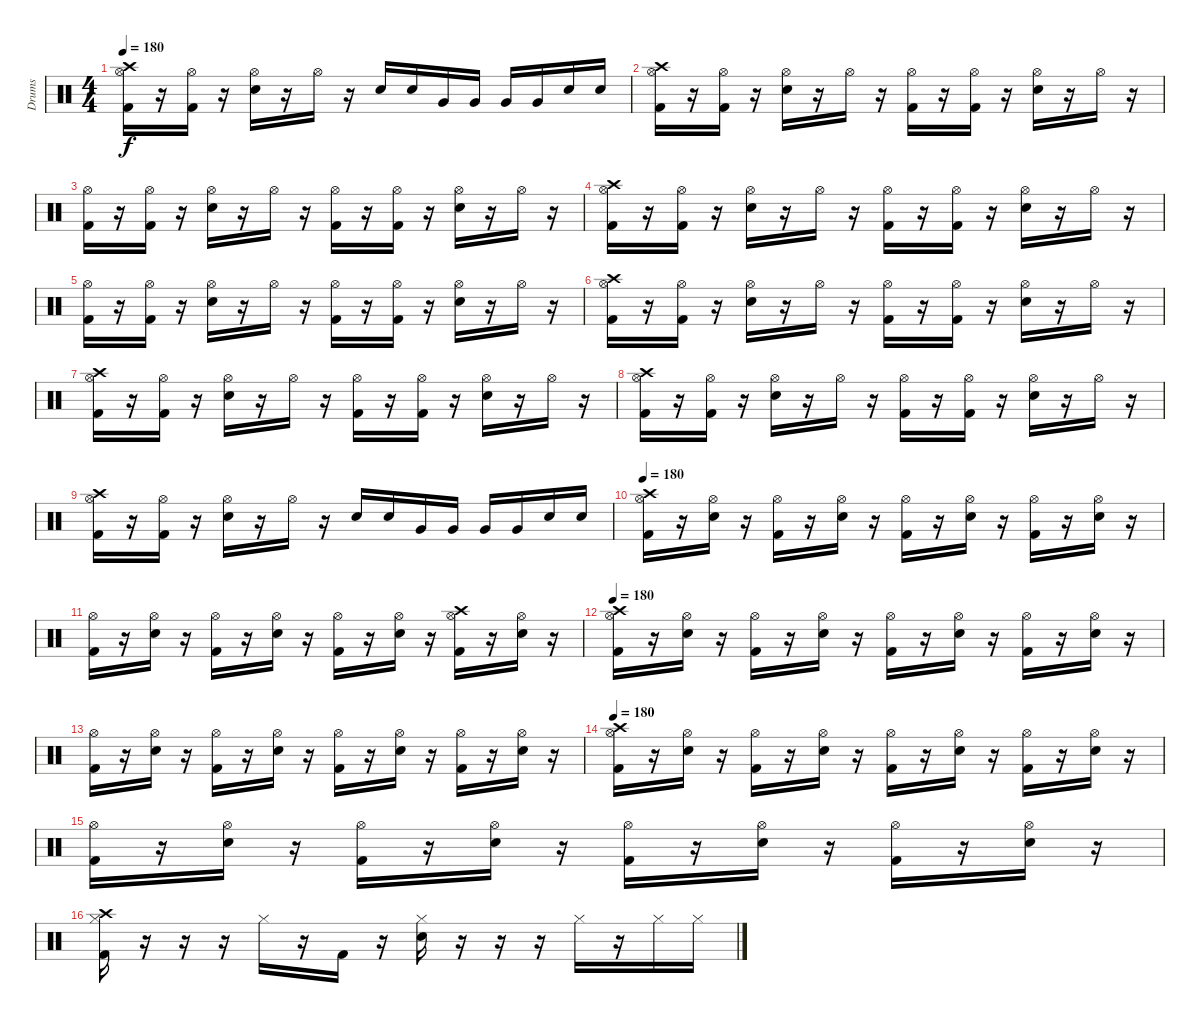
\track ("Drums" "Drums") {instrument percussion}
\staff {score}
\articulation defaults
\ts (4 4)
\tempo 180
\clef neutral
\ks c
("Hi-Hat (open)" "Kick (hit) 2" "Crash high (hit)").16{dy f} r.16 ("Hi-Hat (open)" "Kick (hit) 2").16 r.16 ("Hi-Hat (open)" "Snare (hit) 2").16 r.16 "Hi-Hat (open)".16 r.16 "Snare (hit) 2".16 "Snare (hit) 2".16 "Very Low Tom (hit)".16 "Very Low Tom (hit)".16 "Very Low Tom (hit)".16 "Very Low Tom (hit)".16 "Snare (hit) 2".16 "Snare (hit) 2".16 |
("Hi-Hat (open)" "Kick (hit) 2" "Crash high (hit)").16 r.16 ("Hi-Hat (open)" "Kick (hit) 2").16 r.16 ("Hi-Hat (open)" "Snare (hit) 2").16 r.16 "Hi-Hat (open)".16 r.16 ("Hi-Hat (open)" "Kick (hit) 2").16 r.16 ("Hi-Hat (open)" "Kick (hit) 2").16 r.16 ("Hi-Hat (open)" "Snare (hit) 2").16 r.16 "Hi-Hat (open)".16 r.16 |
("Hi-Hat (open)" "Kick (hit) 2").16 r.16 ("Hi-Hat (open)" "Kick (hit) 2").16 r.16 ("Hi-Hat (open)" "Snare (hit) 2").16 r.16 "Hi-Hat (open)".16 r.16 ("Hi-Hat (open)" "Kick (hit) 2").16 r.16 ("Hi-Hat (open)" "Kick (hit) 2").16 r.16 ("Hi-Hat (open)" "Snare (hit) 2").16 r.16 "Hi-Hat (open)".16 r.16 |
("Hi-Hat (open)" "Kick (hit) 2" "Crash high (hit)").16 r.16 ("Hi-Hat (open)" "Kick (hit) 2").16 r.16 ("Hi-Hat (open)" "Snare (hit) 2").16 r.16 "Hi-Hat (open)".16 r.16 ("Hi-Hat (open)" "Kick (hit) 2").16 r.16 ("Hi-Hat (open)" "Kick (hit) 2").16 r.16 ("Hi-Hat (open)" "Snare (hit) 2").16 r.16 "Hi-Hat (open)".16 r.16 |
("Hi-Hat (open)" "Kick (hit) 2").16 r.16 ("Hi-Hat (open)" "Kick (hit) 2").16 r.16 ("Hi-Hat (open)" "Snare (hit) 2").16 r.16 "Hi-Hat (open)".16 r.16 ("Hi-Hat (open)" "Kick (hit) 2").16 r.16 ("Hi-Hat (open)" "Kick (hit) 2").16 r.16 ("Hi-Hat (open)" "Snare (hit) 2").16 r.16 "Hi-Hat (open)".16 r.16 |
("Hi-Hat (open)" "Kick (hit) 2" "Crash high (hit)").16 r.16 ("Hi-Hat (open)" "Kick (hit) 2").16 r.16 ("Hi-Hat (open)" "Snare (hit) 2").16 r.16 "Hi-Hat (open)".16 r.16 ("Hi-Hat (open)" "Kick (hit) 2").16 r.16 ("Hi-Hat (open)" "Kick (hit) 2").16 r.16 ("Hi-Hat (open)" "Snare (hit) 2").16 r.16 "Hi-Hat (open)".16 r.16 |
("Hi-Hat (open)" "Kick (hit) 2" "Crash high (hit)").16 r.16 ("Hi-Hat (open)" "Kick (hit) 2").16 r.16 ("Hi-Hat (open)" "Snare (hit) 2").16 r.16 "Hi-Hat (open)".16 r.16 ("Hi-Hat (open)" "Kick (hit) 2").16 r.16 ("Hi-Hat (open)" "Kick (hit) 2").16 r.16 ("Hi-Hat (open)" "Snare (hit) 2").16 r.16 "Hi-Hat (open)".16 r.16 |
("Hi-Hat (open)" "Kick (hit) 2" "Crash high (hit)").16 r.16 ("Hi-Hat (open)" "Kick (hit) 2").16 r.16 ("Hi-Hat (open)" "Snare (hit) 2").16 r.16 "Hi-Hat (open)".16 r.16 ("Hi-Hat (open)" "Kick (hit) 2").16 r.16 ("Hi-Hat (open)" "Kick (hit) 2").16 r.16 ("Hi-Hat (open)" "Snare (hit) 2").16 r.16 "Hi-Hat (open)".16 r.16 |
("Hi-Hat (open)" "Kick (hit) 2" "Crash high (hit)").16 r.16 ("Hi-Hat (open)" "Kick (hit) 2").16 r.16 ("Hi-Hat (open)" "Snare (hit) 2").16 r.16 "Hi-Hat (open)".16 r.16 "Snare (hit) 2".16 "Snare (hit) 2".16 "Very Low Tom (hit)".16 "Very Low Tom (hit)".16 "Very Low Tom (hit)".16 "Very Low Tom (hit)".16 "Snare (hit) 2".16 "Snare (hit) 2".16 |
\tempo 180
("Hi-Hat (open)" "Kick (hit) 2" "Crash high (hit)").16 r.16 ("Hi-Hat (open)" "Snare (hit) 2").16 r.16 ("Hi-Hat (open)" "Kick (hit) 2").16 r.16 ("Hi-Hat (open)" "Snare (hit) 2").16 r.16 ("Hi-Hat (open)" "Kick (hit) 2").16 r.16 ("Hi-Hat (open)" "Snare (hit) 2").16 r.16 ("Hi-Hat (open)" "Kick (hit) 2").16 r.16 ("Hi-Hat (open)" "Snare (hit) 2").16 r.16 |
("Hi-Hat (open)" "Kick (hit) 2").16 r.16 ("Hi-Hat (open)" "Snare (hit) 2").16 r.16 ("Hi-Hat (open)" "Kick (hit) 2").16 r.16 ("Hi-Hat (open)" "Snare (hit) 2").16 r.16 ("Hi-Hat (open)" "Kick (hit) 2").16 r.16 ("Hi-Hat (open)" "Snare (hit) 2").16 r.16 ("Hi-Hat (open)" "Kick (hit) 2" "Crash high (hit)").16 r.16 ("Hi-Hat (open)" "Snare (hit) 2").16 r.16 |
\tempo 180
("Hi-Hat (open)" "Kick (hit) 2" "Crash high (hit)").16 r.16 ("Hi-Hat (open)" "Snare (hit) 2").16 r.16 ("Hi-Hat (open)" "Kick (hit) 2").16 r.16 ("Hi-Hat (open)" "Snare (hit) 2").16 r.16 ("Hi-Hat (open)" "Kick (hit) 2").16 r.16 ("Hi-Hat (open)" "Snare (hit) 2").16 r.16 ("Hi-Hat (open)" "Kick (hit) 2").16 r.16 ("Hi-Hat (open)" "Snare (hit) 2").16 r.16 |
("Hi-Hat (open)" "Kick (hit) 2").16 r.16 ("Hi-Hat (open)" "Snare (hit) 2").16 r.16 ("Hi-Hat (open)" "Kick (hit) 2").16 r.16 ("Hi-Hat (open)" "Snare (hit) 2").16 r.16 ("Hi-Hat (open)" "Kick (hit) 2").16 r.16 ("Hi-Hat (open)" "Snare (hit) 2").16 r.16 ("Hi-Hat (open)" "Kick (hit) 2").16 r.16 ("Hi-Hat (open)" "Snare (hit) 2").16 r.16 |
\tempo 180
("Hi-Hat (open)" "Kick (hit) 2" "Crash high (hit)").16 r.16 ("Hi-Hat (open)" "Snare (hit) 2").16 r.16 ("Hi-Hat (open)" "Kick (hit) 2").16 r.16 ("Hi-Hat (open)" "Snare (hit) 2").16 r.16 ("Hi-Hat (open)" "Kick (hit) 2").16 r.16 ("Hi-Hat (open)" "Snare (hit) 2").16 r.16 ("Hi-Hat (open)" "Kick (hit) 2").16 r.16 ("Hi-Hat (open)" "Snare (hit) 2").16 r.16 |
("Hi-Hat (open)" "Kick (hit) 2").16 r.16 ("Hi-Hat (open)" "Snare (hit) 2").16 r.16 ("Hi-Hat (open)" "Kick (hit) 2").16 r.16 ("Hi-Hat (open)" "Snare (hit) 2").16 r.16 ("Hi-Hat (open)" "Kick (hit) 2").16 r.16 ("Hi-Hat (open)" "Snare (hit) 2").16 r.16 ("Hi-Hat (open)" "Kick (hit) 2").16 r.16 ("Hi-Hat (open)" "Snare (hit) 2").16 r.16 |
("Hi-Hat (closed)" "Kick (hit) 2" "Crash high (hit)").16 r.16 r.16 r.16 "Hi-Hat (closed)".16 r.16 "Kick (hit) 2".16 r.16 ("Hi-Hat (closed)" "Snare (hit) 2").16 r.16 r.16 r.16 "Hi-Hat (closed)".16 r.16 "Hi-Hat (closed)".16 "Hi-Hat (closed)".16
